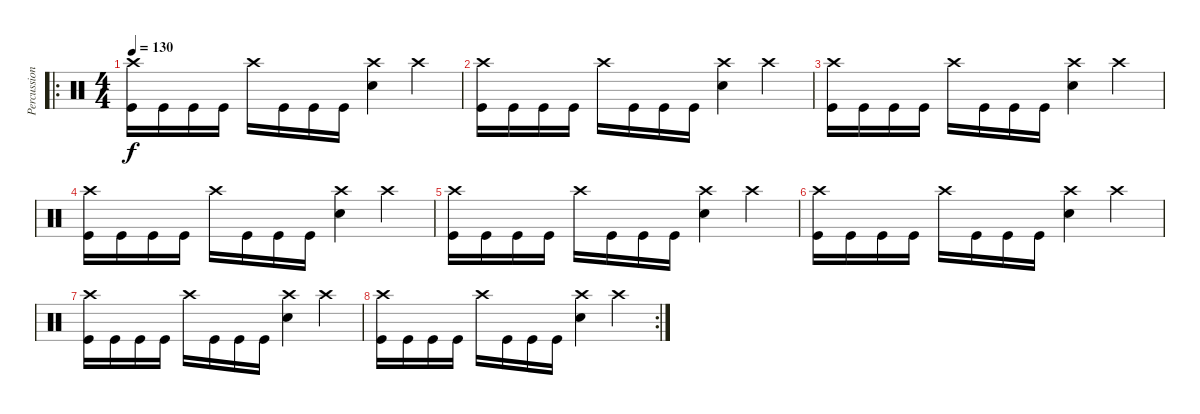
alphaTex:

\track ("Percussion" "Percussion") {instrument percussion}
\staff {score}
\articulation defaults
\ro
\ts (4 4)
\tempo 130
\clef neutral
\ks c
("Crash high (hit)" "Kick (hit)").16{dy f} "Kick (hit)".16 "Kick (hit)".16 "Kick (hit)".16 "Crash high (hit)".16 "Kick (hit)".16 "Kick (hit)".16 "Kick (hit)".16 ("Crash high (hit)" "Snare (hit) 2").4 "Crash high (hit)".4 |
("Crash high (hit)" "Kick (hit)").16 "Kick (hit)".16 "Kick (hit)".16 "Kick (hit)".16 "Crash high (hit)".16 "Kick (hit)".16 "Kick (hit)".16 "Kick (hit)".16 ("Crash high (hit)" "Snare (hit) 2").4 "Crash high (hit)".4 |
("Crash high (hit)" "Kick (hit)").16 "Kick (hit)".16 "Kick (hit)".16 "Kick (hit)".16 "Crash high (hit)".16 "Kick (hit)".16 "Kick (hit)".16 "Kick (hit)".16 ("Crash high (hit)" "Snare (hit) 2").4 "Crash high (hit)".4 |
("Crash high (hit)" "Kick (hit)").16 "Kick (hit)".16 "Kick (hit)".16 "Kick (hit)".16 "Crash high (hit)".16 "Kick (hit)".16 "Kick (hit)".16 "Kick (hit)".16 ("Crash high (hit)" "Snare (hit) 2").4 "Crash high (hit)".4 |
("Crash high (hit)" "Kick (hit)").16 "Kick (hit)".16 "Kick (hit)".16 "Kick (hit)".16 "Crash high (hit)".16 "Kick (hit)".16 "Kick (hit)".16 "Kick (hit)".16 ("Crash high (hit)" "Snare (hit) 2").4 "Crash high (hit)".4 |
("Crash high (hit)" "Kick (hit)").16 "Kick (hit)".16 "Kick (hit)".16 "Kick (hit)".16 "Crash high (hit)".16 "Kick (hit)".16 "Kick (hit)".16 "Kick (hit)".16 ("Crash high (hit)" "Snare (hit) 2").4 "Crash high (hit)".4 |
("Crash high (hit)" "Kick (hit)").16 "Kick (hit)".16 "Kick (hit)".16 "Kick (hit)".16 "Crash high (hit)".16 "Kick (hit)".16 "Kick (hit)".16 "Kick (hit)".16 ("Crash high (hit)" "Snare (hit) 2").4 "Crash high (hit)".4 |
\rc 2
("Crash high (hit)" "Kick (hit)").16 "Kick (hit)".16 "Kick (hit)".16 "Kick (hit)".16 "Crash high (hit)".16 "Kick (hit)".16 "Kick (hit)".16 "Kick (hit)".16 ("Crash high (hit)" "Snare (hit) 2").4 "Crash high (hit)".4
